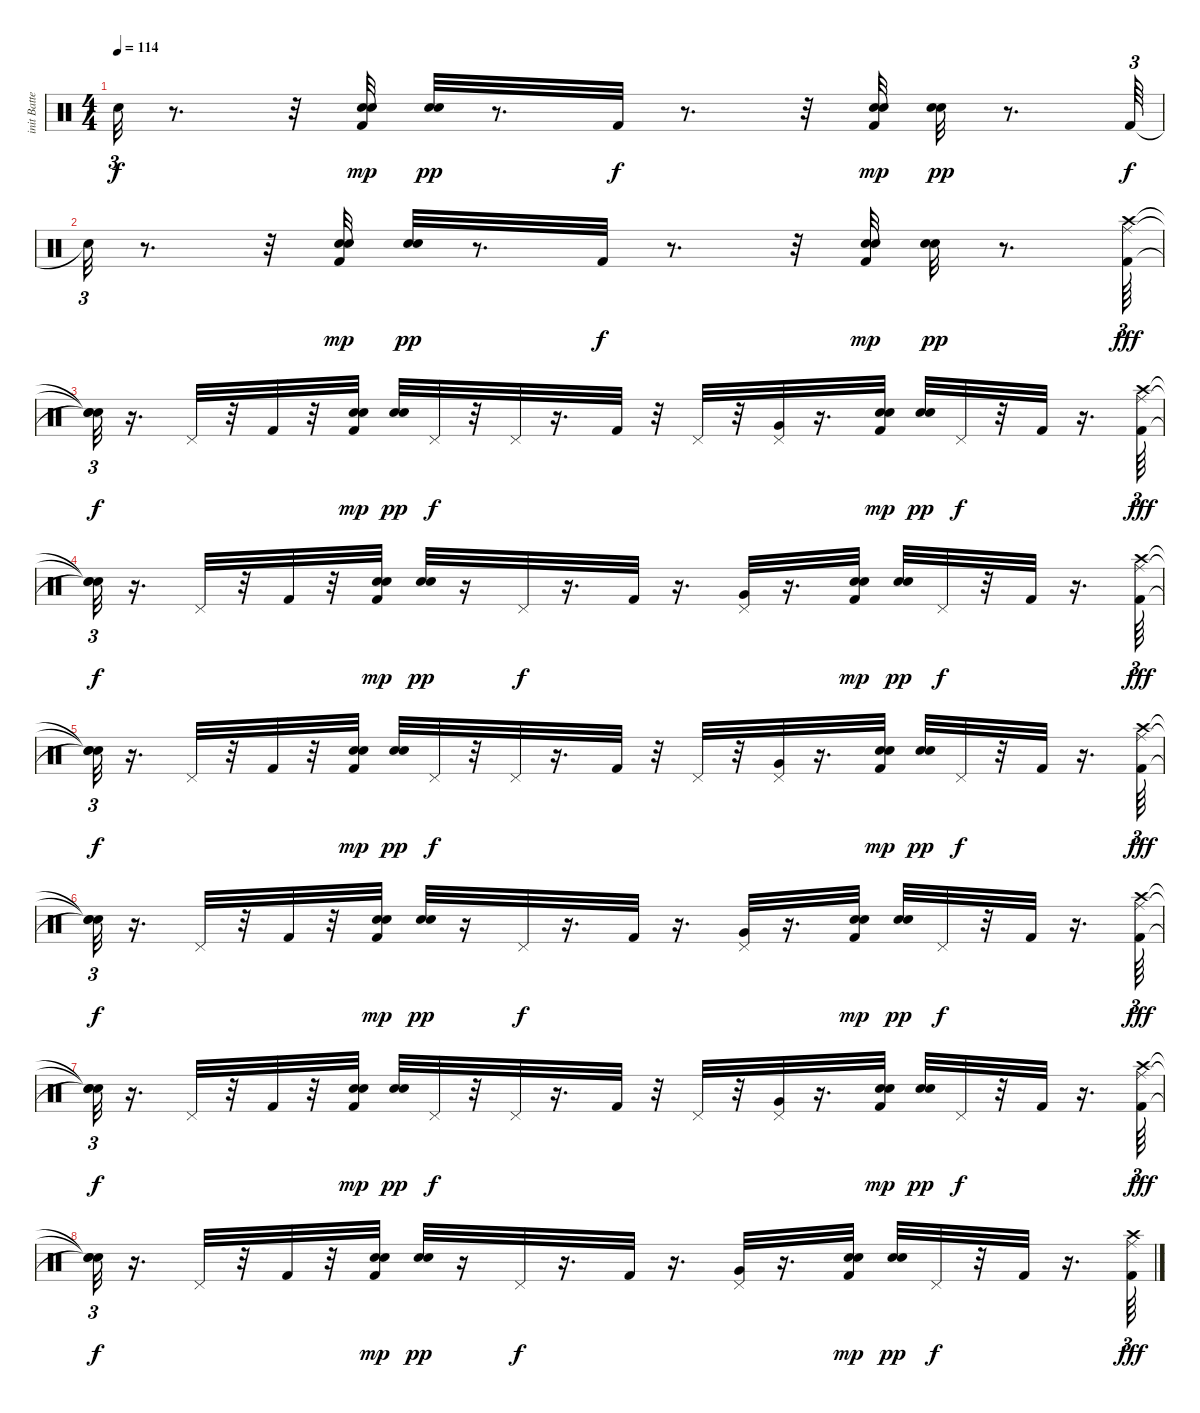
\track ("init Batterie" "init Batte") {instrument percussion}
\staff {score}
\articulation defaults
\ts (4 4)
\tempo 114
\clef neutral
\ks c "Snare (hit)"{t}.32{tu (3 2) dy f}
r.8{d} r.32 ("Hand Clap (hit)" "Kick (hit) 2" "Hand Clap (hit)").32{dy mp} ("Hand Clap (hit)" "Hand Clap (hit)").32{dy pp} r.8{d} "Kick (hit) 2".32{dy f} r.8{d} r.32 ("Hand Clap (hit)" "Kick (hit) 2" "Hand Clap (hit)").32{dy mp} ("Hand Clap (hit)" "Hand Clap (hit)").32{dy pp} r.8{d} "Kick (hit) 2".64{tu (3 2) dy f} |
"Snare (hit)"{t}.32{tu (3 2)} r.8{d} r.32 ("Hand Clap (hit)" "Kick (hit) 2" "Hand Clap (hit)").32{dy mp} ("Hand Clap (hit)" "Hand Clap (hit)").32{dy pp} r.8{d} "Kick (hit) 2".32{dy f} r.8{d} r.32 ("Hand Clap (hit)" "Kick (hit) 2" "Hand Clap (hit)").32{dy mp} ("Hand Clap (hit)" "Hand Clap (hit)").32{dy pp} r.8{d} ("Kick (hit) 2" "Crash high (hit)" "Ride (middle)").64{tu (3 2) dy fff} |
("Snare (hit)"{t} "Snare (hit)"{t} "Snare (hit)"{t}).32{tu (3 2) dy f} r.16{d} "Pedal Hi-Hat (hit)".32 r.32 "Kick (hit) 2".32 r.32 ("Hand Clap (hit)" "Kick (hit) 2" "Hand Clap (hit)").32{dy mp} ("Hand Clap (hit)" "Hand Clap (hit)").32{dy pp} "Pedal Hi-Hat (hit)".32{dy f} r.32 "Pedal Hi-Hat (hit)".32 r.16{d} "Kick (hit) 2".32 r.32 "Pedal Hi-Hat (hit)".32 r.32 ("Very Low Tom (hit)" "Pedal Hi-Hat (hit)").32 r.16{d} ("Hand Clap (hit)" "Kick (hit) 2" "Hand Clap (hit)").32{dy mp} ("Hand Clap (hit)" "Hand Clap (hit)").32{dy pp} "Pedal Hi-Hat (hit)".32{dy f} r.32 "Kick (hit) 2".32 r.16{d} ("Kick (hit) 2" "Crash high (hit)" "Ride (middle)").64{tu (3 2) dy fff} |
("Snare (hit)"{t} "Snare (hit)"{t} "Snare (hit)"{t}).32{tu (3 2) dy f} r.16{d} "Pedal Hi-Hat (hit)".32 r.32 "Kick (hit) 2".32 r.32 ("Hand Clap (hit)" "Kick (hit) 2" "Hand Clap (hit)").32{dy mp} ("Hand Clap (hit)" "Hand Clap (hit)").32{dy pp} r.16 "Pedal Hi-Hat (hit)".32{dy f} r.16{d} "Kick (hit) 2".32 r.16{d} ("Very Low Tom (hit)" "Pedal Hi-Hat (hit)").32 r.16{d} ("Hand Clap (hit)" "Kick (hit) 2" "Hand Clap (hit)").32{dy mp} ("Hand Clap (hit)" "Hand Clap (hit)").32{dy pp} "Pedal Hi-Hat (hit)".32{dy f} r.32 "Kick (hit) 2".32 r.16{d} ("Kick (hit) 2" "Crash high (hit)" "Ride (middle)").64{tu (3 2) dy fff} |
("Snare (hit)"{t} "Snare (hit)"{t} "Snare (hit)"{t}).32{tu (3 2) dy f} r.16{d} "Pedal Hi-Hat (hit)".32 r.32 "Kick (hit) 2".32 r.32 ("Hand Clap (hit)" "Kick (hit) 2" "Hand Clap (hit)").32{dy mp} ("Hand Clap (hit)" "Hand Clap (hit)").32{dy pp} "Pedal Hi-Hat (hit)".32{dy f} r.32 "Pedal Hi-Hat (hit)".32 r.16{d} "Kick (hit) 2".32 r.32 "Pedal Hi-Hat (hit)".32 r.32 ("Very Low Tom (hit)" "Pedal Hi-Hat (hit)").32 r.16{d} ("Hand Clap (hit)" "Kick (hit) 2" "Hand Clap (hit)").32{dy mp} ("Hand Clap (hit)" "Hand Clap (hit)").32{dy pp} "Pedal Hi-Hat (hit)".32{dy f} r.32 "Kick (hit) 2".32 r.16{d} ("Kick (hit) 2" "Crash high (hit)" "Ride (middle)").64{tu (3 2) dy fff} |
("Snare (hit)"{t} "Snare (hit)"{t} "Snare (hit)"{t}).32{tu (3 2) dy f} r.16{d} "Pedal Hi-Hat (hit)".32 r.32 "Kick (hit) 2".32 r.32 ("Hand Clap (hit)" "Kick (hit) 2" "Hand Clap (hit)").32{dy mp} ("Hand Clap (hit)" "Hand Clap (hit)").32{dy pp} r.16 "Pedal Hi-Hat (hit)".32{dy f} r.16{d} "Kick (hit) 2".32 r.16{d} ("Very Low Tom (hit)" "Pedal Hi-Hat (hit)").32 r.16{d} ("Hand Clap (hit)" "Kick (hit) 2" "Hand Clap (hit)").32{dy mp} ("Hand Clap (hit)" "Hand Clap (hit)").32{dy pp} "Pedal Hi-Hat (hit)".32{dy f} r.32 "Kick (hit) 2".32 r.16{d} ("Kick (hit) 2" "Crash high (hit)" "Ride (middle)").64{tu (3 2) dy fff} |
("Snare (hit)"{t} "Snare (hit)"{t} "Snare (hit)"{t}).32{tu (3 2) dy f} r.16{d} "Pedal Hi-Hat (hit)".32 r.32 "Kick (hit) 2".32 r.32 ("Hand Clap (hit)" "Kick (hit) 2" "Hand Clap (hit)").32{dy mp} ("Hand Clap (hit)" "Hand Clap (hit)").32{dy pp} "Pedal Hi-Hat (hit)".32{dy f} r.32 "Pedal Hi-Hat (hit)".32 r.16{d} "Kick (hit) 2".32 r.32 "Pedal Hi-Hat (hit)".32 r.32 ("Very Low Tom (hit)" "Pedal Hi-Hat (hit)").32 r.16{d} ("Hand Clap (hit)" "Kick (hit) 2" "Hand Clap (hit)").32{dy mp} ("Hand Clap (hit)" "Hand Clap (hit)").32{dy pp} "Pedal Hi-Hat (hit)".32{dy f} r.32 "Kick (hit) 2".32 r.16{d} ("Kick (hit) 2" "Crash high (hit)" "Ride (middle)").64{tu (3 2) dy fff} |
("Snare (hit)"{t} "Snare (hit)"{t} "Snare (hit)"{t}).32{tu (3 2) dy f} r.16{d} "Pedal Hi-Hat (hit)".32 r.32 "Kick (hit) 2".32 r.32 ("Hand Clap (hit)" "Kick (hit) 2" "Hand Clap (hit)").32{dy mp} ("Hand Clap (hit)" "Hand Clap (hit)").32{dy pp} r.16 "Pedal Hi-Hat (hit)".32{dy f} r.16{d} "Kick (hit) 2".32 r.16{d} ("Very Low Tom (hit)" "Pedal Hi-Hat (hit)").32 r.16{d} ("Hand Clap (hit)" "Kick (hit) 2" "Hand Clap (hit)").32{dy mp} ("Hand Clap (hit)" "Hand Clap (hit)").32{dy pp} "Pedal Hi-Hat (hit)".32{dy f} r.32 "Kick (hit) 2".32 r.16{d} ("Kick (hit) 2" "Crash high (hit)" "Ride (middle)").64{tu (3 2) dy fff}
